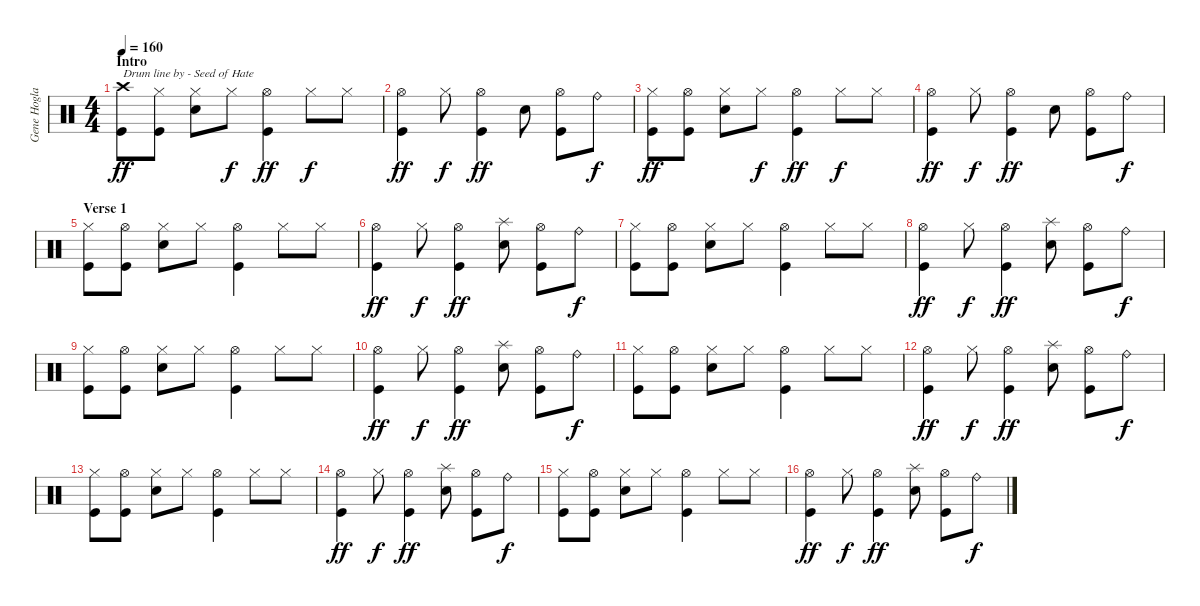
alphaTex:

\track ("Gene Hoglan" "Gene Hogla") {instrument percussion}
\staff {score}
\articulation defaults
\ts (4 4)
\section ("" "Intro")
\tempo 160
\clef neutral
\ks c
("Crash high (hit)" "Kick (hit)").8{txt "Drum line by - Seed of Hate" dy ff} ("Hi-Hat (closed)" "Kick (hit)").8 ("Hi-Hat (closed)" "Electric Snare (hit)").8 "Hi-Hat (closed)".8{dy f} ("Hi-Hat (open)" "Kick (hit)").4{dy ff} "Hi-Hat (closed)".8{dy f} "Hi-Hat (closed)".8 |
("Hi-Hat (open)" "Kick (hit)").4{dy ff} "Hi-Hat (closed)".8{dy f} ("Hi-Hat (open)" "Kick (hit)").4{dy ff} "Electric Snare (hit)".8 ("Hi-Hat (open)" "Kick (hit)").8 "Ride (bell)".8{dy f} |
("Hi-Hat (closed)" "Kick (hit)").8{dy ff} ("Hi-Hat (open)" "Kick (hit)").8 ("Hi-Hat (closed)" "Electric Snare (hit)").8 "Hi-Hat (closed)".8{dy f} ("Hi-Hat (open)" "Kick (hit)").4{dy ff} "Hi-Hat (closed)".8{dy f} "Hi-Hat (closed)".8 |
("Hi-Hat (open)" "Kick (hit)").4{dy ff} "Hi-Hat (closed)".8{dy f} ("Hi-Hat (open)" "Kick (hit)").4{dy ff} "Electric Snare (hit)".8 ("Hi-Hat (open)" "Kick (hit)").8 "Ride (bell)".8{dy f} |
\section ("" "Verse 1")
("Hi-Hat (closed)" "Kick (hit)").8 ("Hi-Hat (open)" "Kick (hit)").8 ("Hi-Hat (closed)" "Electric Snare (hit)").8 "Hi-Hat (closed)".8 ("Hi-Hat (open)" "Kick (hit)").4 "Hi-Hat (closed)".8 "Hi-Hat (closed)".8 |
("Hi-Hat (open)" "Kick (hit)").4{dy ff} "Hi-Hat (closed)".8{dy f} ("Hi-Hat (open)" "Kick (hit)").4{dy ff} ("Splash (hit)" "Electric Snare (hit)").8 ("Hi-Hat (open)" "Kick (hit)").8 "Ride (bell)".8{dy f} |
("Hi-Hat (closed)" "Kick (hit)").8 ("Hi-Hat (open)" "Kick (hit)").8 ("Hi-Hat (closed)" "Electric Snare (hit)").8 "Hi-Hat (closed)".8 ("Hi-Hat (open)" "Kick (hit)").4 "Hi-Hat (closed)".8 "Hi-Hat (closed)".8 |
("Hi-Hat (open)" "Kick (hit)").4{dy ff} "Hi-Hat (closed)".8{dy f} ("Hi-Hat (open)" "Kick (hit)").4{dy ff} ("Splash (hit)" "Electric Snare (hit)").8 ("Hi-Hat (open)" "Kick (hit)").8 "Ride (bell)".8{dy f} |
("Hi-Hat (closed)" "Kick (hit)").8 ("Hi-Hat (open)" "Kick (hit)").8 ("Hi-Hat (closed)" "Electric Snare (hit)").8 "Hi-Hat (closed)".8 ("Hi-Hat (open)" "Kick (hit)").4 "Hi-Hat (closed)".8 "Hi-Hat (closed)".8 |
("Hi-Hat (open)" "Kick (hit)").4{dy ff} "Hi-Hat (closed)".8{dy f} ("Hi-Hat (open)" "Kick (hit)").4{dy ff} ("Splash (hit)" "Electric Snare (hit)").8 ("Hi-Hat (open)" "Kick (hit)").8 "Ride (bell)".8{dy f} |
("Hi-Hat (closed)" "Kick (hit)").8 ("Hi-Hat (open)" "Kick (hit)").8 ("Hi-Hat (closed)" "Electric Snare (hit)").8 "Hi-Hat (closed)".8 ("Hi-Hat (open)" "Kick (hit)").4 "Hi-Hat (closed)".8 "Hi-Hat (closed)".8 |
("Hi-Hat (open)" "Kick (hit)").4{dy ff} "Hi-Hat (closed)".8{dy f} ("Hi-Hat (open)" "Kick (hit)").4{dy ff} ("Splash (hit)" "Electric Snare (hit)").8 ("Hi-Hat (open)" "Kick (hit)").8 "Ride (bell)".8{dy f} |
("Hi-Hat (closed)" "Kick (hit)").8 ("Hi-Hat (open)" "Kick (hit)").8 ("Hi-Hat (closed)" "Electric Snare (hit)").8 "Hi-Hat (closed)".8 ("Hi-Hat (open)" "Kick (hit)").4 "Hi-Hat (closed)".8 "Hi-Hat (closed)".8 |
("Hi-Hat (open)" "Kick (hit)").4{dy ff} "Hi-Hat (closed)".8{dy f} ("Hi-Hat (open)" "Kick (hit)").4{dy ff} ("Splash (hit)" "Electric Snare (hit)").8 ("Hi-Hat (open)" "Kick (hit)").8 "Ride (bell)".8{dy f} |
("Hi-Hat (closed)" "Kick (hit)").8 ("Hi-Hat (open)" "Kick (hit)").8 ("Hi-Hat (closed)" "Electric Snare (hit)").8 "Hi-Hat (closed)".8 ("Hi-Hat (open)" "Kick (hit)").4 "Hi-Hat (closed)".8 "Hi-Hat (closed)".8 |
("Hi-Hat (open)" "Kick (hit)").4{dy ff} "Hi-Hat (closed)".8{dy f} ("Hi-Hat (open)" "Kick (hit)").4{dy ff} ("Splash (hit)" "Electric Snare (hit)").8 ("Hi-Hat (open)" "Kick (hit)").8 "Ride (bell)".8{dy f}
